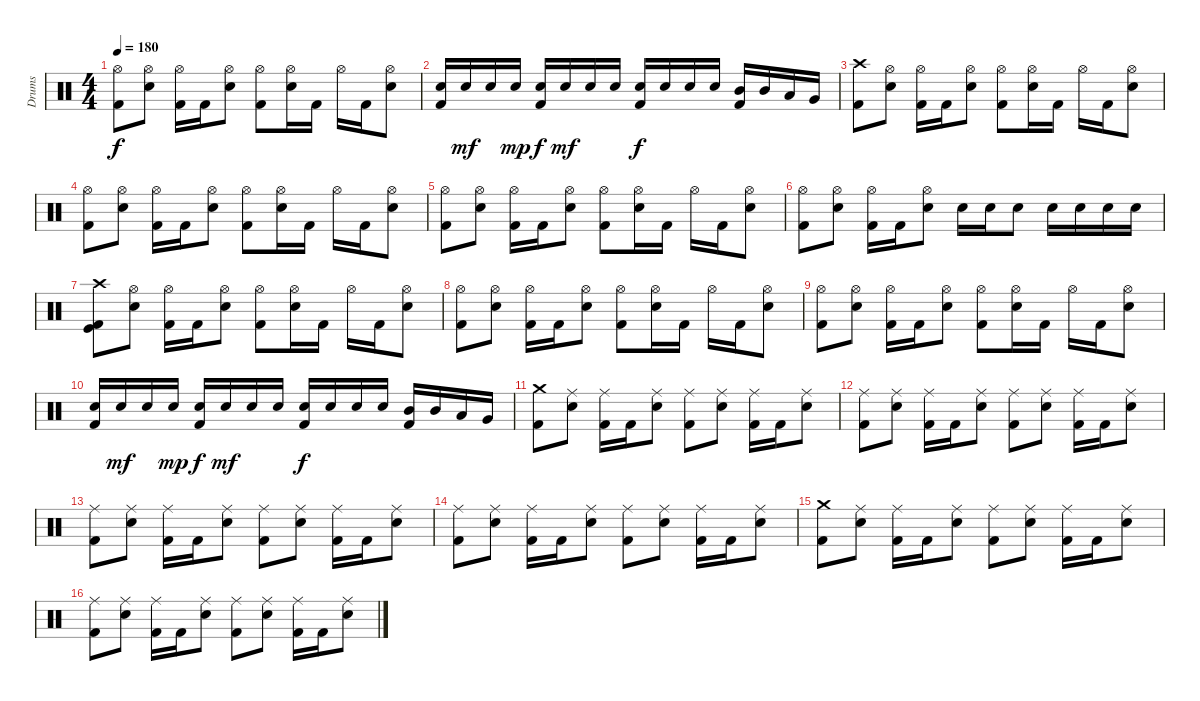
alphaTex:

\track ("Drums" "Drums") {instrument percussion}
\staff {score}
\articulation defaults
\ts (4 4)
\tempo 180
\clef neutral
\ks c
("Hi-Hat (open)" "Kick (hit) 2").8{dy f} ("Hi-Hat (open)" "Electric Snare (hit)").8 ("Hi-Hat (open)" "Kick (hit) 2").16 "Kick (hit) 2".16 ("Hi-Hat (open)" "Electric Snare (hit)").8 ("Hi-Hat (open)" "Kick (hit) 2").8 ("Hi-Hat (open)" "Electric Snare (hit)").16 "Kick (hit) 2".16 "Hi-Hat (open)".16 "Kick (hit) 2".16 ("Hi-Hat (open)" "Electric Snare (hit)").8 |
("Electric Snare (hit)" "Kick (hit) 2").16 "Electric Snare (hit)".16{dy mf} "Electric Snare (hit)".16 "Electric Snare (hit)".16{dy mp} ("Electric Snare (hit)" "Kick (hit) 2").16{dy f} "Electric Snare (hit)".16{dy mf} "Electric Snare (hit)".16 "Electric Snare (hit)".16 ("Electric Snare (hit)" "Kick (hit) 2").16{dy f} "Electric Snare (hit)".16 "Electric Snare (hit)".16 "Electric Snare (hit)".16 ("Mid Tom (hit)" "Kick (hit) 2").16 "Mid Tom (hit)".16 "Low Tom (hit)".16 "Very Low Tom (hit)".16 |
("Crash high (hit)" "Kick (hit) 2").8 ("Hi-Hat (open)" "Electric Snare (hit)").8 ("Hi-Hat (open)" "Kick (hit) 2").16 "Kick (hit) 2".16 ("Hi-Hat (open)" "Electric Snare (hit)").8 ("Hi-Hat (open)" "Kick (hit) 2").8 ("Hi-Hat (open)" "Electric Snare (hit)").16 "Kick (hit) 2".16 "Hi-Hat (open)".16 "Kick (hit) 2".16 ("Hi-Hat (open)" "Electric Snare (hit)").8 |
("Hi-Hat (open)" "Kick (hit) 2").8 ("Hi-Hat (open)" "Electric Snare (hit)").8 ("Hi-Hat (open)" "Kick (hit) 2").16 "Kick (hit) 2".16 ("Hi-Hat (open)" "Electric Snare (hit)").8 ("Hi-Hat (open)" "Kick (hit) 2").8 ("Hi-Hat (open)" "Electric Snare (hit)").16 "Kick (hit) 2".16 "Hi-Hat (open)".16 "Kick (hit) 2".16 ("Hi-Hat (open)" "Electric Snare (hit)").8 |
("Hi-Hat (open)" "Kick (hit) 2").8 ("Hi-Hat (open)" "Electric Snare (hit)").8 ("Hi-Hat (open)" "Kick (hit) 2").16 "Kick (hit) 2".16 ("Hi-Hat (open)" "Electric Snare (hit)").8 ("Hi-Hat (open)" "Kick (hit) 2").8 ("Hi-Hat (open)" "Electric Snare (hit)").16 "Kick (hit) 2".16 "Hi-Hat (open)".16 "Kick (hit) 2".16 ("Hi-Hat (open)" "Electric Snare (hit)").8 |
("Hi-Hat (open)" "Kick (hit) 2").8 ("Hi-Hat (open)" "Electric Snare (hit)").8 ("Hi-Hat (open)" "Kick (hit) 2").16 "Kick (hit) 2".16 ("Hi-Hat (open)" "Electric Snare (hit)").8 "Electric Snare (hit)".16 "Electric Snare (hit)".16 "Electric Snare (hit)".8 "Electric Snare (hit)".16 "Electric Snare (hit)".16 "Electric Snare (hit)".16 "Electric Snare (hit)".16 |
("Crash high (hit)" "Kick (hit)" "Kick (hit) 2").8 ("Hi-Hat (open)" "Electric Snare (hit)").8 ("Hi-Hat (open)" "Kick (hit) 2").16 "Kick (hit) 2".16 ("Hi-Hat (open)" "Electric Snare (hit)").8 ("Hi-Hat (open)" "Kick (hit) 2").8 ("Hi-Hat (open)" "Electric Snare (hit)").16 "Kick (hit) 2".16 "Hi-Hat (open)".16 "Kick (hit) 2".16 ("Hi-Hat (open)" "Electric Snare (hit)").8 |
("Hi-Hat (open)" "Kick (hit) 2").8 ("Hi-Hat (open)" "Electric Snare (hit)").8 ("Hi-Hat (open)" "Kick (hit) 2").16 "Kick (hit) 2".16 ("Hi-Hat (open)" "Electric Snare (hit)").8 ("Hi-Hat (open)" "Kick (hit) 2").8 ("Hi-Hat (open)" "Electric Snare (hit)").16 "Kick (hit) 2".16 "Hi-Hat (open)".16 "Kick (hit) 2".16 ("Hi-Hat (open)" "Electric Snare (hit)").8 |
("Hi-Hat (open)" "Kick (hit) 2").8 ("Hi-Hat (open)" "Electric Snare (hit)").8 ("Hi-Hat (open)" "Kick (hit) 2").16 "Kick (hit) 2".16 ("Hi-Hat (open)" "Electric Snare (hit)").8 ("Hi-Hat (open)" "Kick (hit) 2").8 ("Hi-Hat (open)" "Electric Snare (hit)").16 "Kick (hit) 2".16 "Hi-Hat (open)".16 "Kick (hit) 2".16 ("Hi-Hat (open)" "Electric Snare (hit)").8 |
("Electric Snare (hit)" "Kick (hit) 2").16 "Electric Snare (hit)".16{dy mf} "Electric Snare (hit)".16 "Electric Snare (hit)".16{dy mp} ("Electric Snare (hit)" "Kick (hit) 2").16{dy f} "Electric Snare (hit)".16{dy mf} "Electric Snare (hit)".16 "Electric Snare (hit)".16 ("Electric Snare (hit)" "Kick (hit) 2").16{dy f} "Electric Snare (hit)".16 "Electric Snare (hit)".16 "Electric Snare (hit)".16 ("Mid Tom (hit)" "Kick (hit) 2").16 "Mid Tom (hit)".16 "Low Tom (hit)".16 "Very Low Tom (hit)".16 |
("Crash medium (hit)" "Kick (hit) 2").8 ("Ride (middle)" "Electric Snare (hit)").8 ("Ride (middle)" "Kick (hit) 2").16 "Kick (hit) 2".16 ("Ride (middle)" "Electric Snare (hit)").8 ("Ride (middle)" "Kick (hit) 2").8 ("Ride (middle)" "Electric Snare (hit)").8 ("Ride (middle)" "Kick (hit) 2").16 "Kick (hit) 2".16 ("Ride (middle)" "Electric Snare (hit)").8 |
("Ride (middle)" "Kick (hit) 2").8 ("Ride (middle)" "Electric Snare (hit)").8 ("Ride (middle)" "Kick (hit) 2").16 "Kick (hit) 2".16 ("Ride (middle)" "Electric Snare (hit)").8 ("Ride (middle)" "Kick (hit) 2").8 ("Ride (middle)" "Electric Snare (hit)").8 ("Ride (middle)" "Kick (hit) 2").16 "Kick (hit) 2".16 ("Ride (middle)" "Electric Snare (hit)").8 |
("Ride (middle)" "Kick (hit) 2").8 ("Ride (middle)" "Electric Snare (hit)").8 ("Ride (middle)" "Kick (hit) 2").16 "Kick (hit) 2".16 ("Ride (middle)" "Electric Snare (hit)").8 ("Ride (middle)" "Kick (hit) 2").8 ("Ride (middle)" "Electric Snare (hit)").8 ("Ride (middle)" "Kick (hit) 2").16 "Kick (hit) 2".16 ("Ride (middle)" "Electric Snare (hit)").8 |
("Ride (middle)" "Kick (hit) 2").8 ("Ride (middle)" "Electric Snare (hit)").8 ("Ride (middle)" "Kick (hit) 2").16 "Kick (hit) 2".16 ("Ride (middle)" "Electric Snare (hit)").8 ("Ride (middle)" "Kick (hit) 2").8 ("Ride (middle)" "Electric Snare (hit)").8 ("Ride (middle)" "Kick (hit) 2").16 "Kick (hit) 2".16 ("Ride (middle)" "Electric Snare (hit)").8 |
("Crash medium (hit)" "Kick (hit) 2").8 ("Ride (middle)" "Electric Snare (hit)").8 ("Ride (middle)" "Kick (hit) 2").16 "Kick (hit) 2".16 ("Ride (middle)" "Electric Snare (hit)").8 ("Ride (middle)" "Kick (hit) 2").8 ("Ride (middle)" "Electric Snare (hit)").8 ("Ride (middle)" "Kick (hit) 2").16 "Kick (hit) 2".16 ("Ride (middle)" "Electric Snare (hit)").8 |
("Ride (middle)" "Kick (hit) 2").8 ("Ride (middle)" "Electric Snare (hit)").8 ("Ride (middle)" "Kick (hit) 2").16 "Kick (hit) 2".16 ("Ride (middle)" "Electric Snare (hit)").8 ("Ride (middle)" "Kick (hit) 2").8 ("Ride (middle)" "Electric Snare (hit)").8 ("Ride (middle)" "Kick (hit) 2").16 "Kick (hit) 2".16 ("Ride (middle)" "Electric Snare (hit)").8
